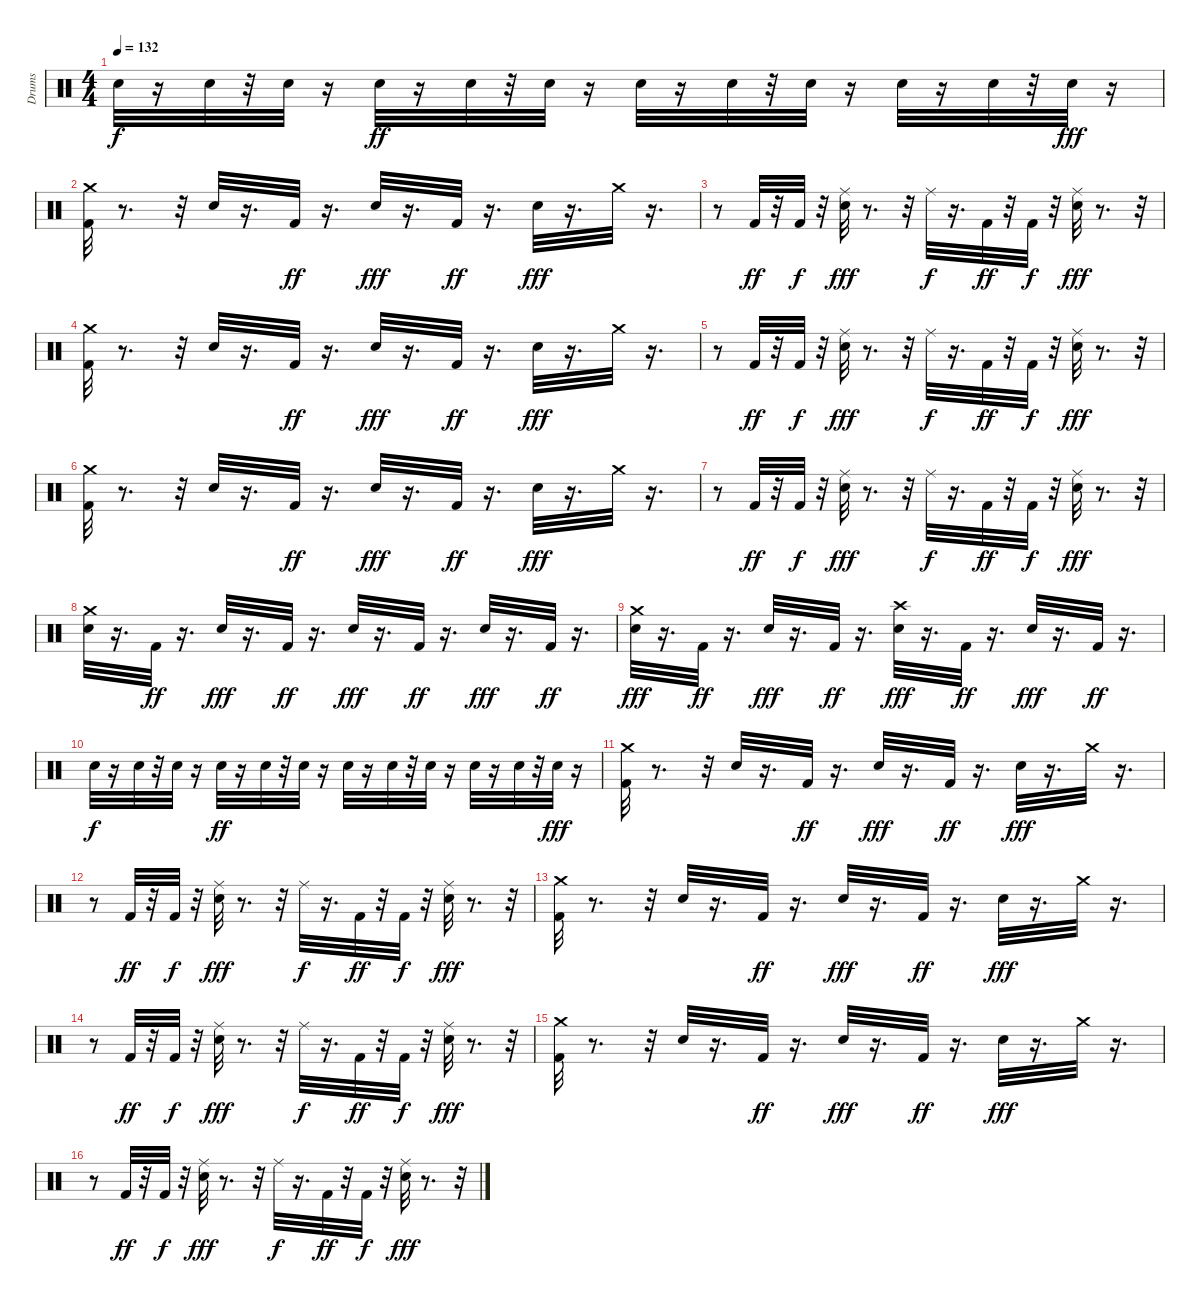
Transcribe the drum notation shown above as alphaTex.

\track ("Drums" "Drums") {instrument percussion}
\staff {score}
\articulation defaults
\ts (4 4)
\tempo 132
\clef neutral
\ks c "Snare (hit) 2".32{dy f}
r.16 "Snare (hit) 2".32 r.32 "Snare (hit) 2".32 r.16 "Snare (hit) 2".32{dy ff} r.16 "Snare (hit) 2".32 r.32 "Snare (hit) 2".32 r.16 "Snare (hit) 2".32 r.16 "Snare (hit) 2".32 r.32 "Snare (hit) 2".32 r.16 "Snare (hit) 2".32 r.16 "Snare (hit) 2".32 r.32 "Snare (hit) 2".32{dy fff} r.16 |
("Kick (hit) 2" "Crash medium (hit)").32 r.8{d} r.32 "Snare (hit) 2".32 r.16{d} "Kick (hit) 2".32{dy ff} r.16{d} "Snare (hit) 2".32{dy fff} r.16{d} "Kick (hit) 2".32{dy ff} r.16{d} "Snare (hit) 2".32{dy fff} r.16{d} "Crash medium (hit)".32 r.16{d} |
r.8 "Kick (hit) 2".32{dy ff} r.32 "Kick (hit) 2".32{dy f} r.32 ("Ride (middle)" "Snare (hit) 2").32{dy fff} r.8{d} r.32 "Ride (middle)".32{dy f} r.16{d} "Kick (hit) 2".32{dy ff} r.32 "Kick (hit) 2".32{dy f} r.32 ("Ride (middle)" "Snare (hit) 2").32{dy fff} r.8{d} r.32 |
("Kick (hit) 2" "Crash medium (hit)").32 r.8{d} r.32 "Snare (hit) 2".32 r.16{d} "Kick (hit) 2".32{dy ff} r.16{d} "Snare (hit) 2".32{dy fff} r.16{d} "Kick (hit) 2".32{dy ff} r.16{d} "Snare (hit) 2".32{dy fff} r.16{d} "Crash medium (hit)".32 r.16{d} |
r.8 "Kick (hit) 2".32{dy ff} r.32 "Kick (hit) 2".32{dy f} r.32 ("Ride (middle)" "Snare (hit) 2").32{dy fff} r.8{d} r.32 "Ride (middle)".32{dy f} r.16{d} "Kick (hit) 2".32{dy ff} r.32 "Kick (hit) 2".32{dy f} r.32 ("Ride (middle)" "Snare (hit) 2").32{dy fff} r.8{d} r.32 |
("Kick (hit) 2" "Crash medium (hit)").32 r.8{d} r.32 "Snare (hit) 2".32 r.16{d} "Kick (hit) 2".32{dy ff} r.16{d} "Snare (hit) 2".32{dy fff} r.16{d} "Kick (hit) 2".32{dy ff} r.16{d} "Snare (hit) 2".32{dy fff} r.16{d} "Crash medium (hit)".32 r.16{d} |
r.8 "Kick (hit) 2".32{dy ff} r.32 "Kick (hit) 2".32{dy f} r.32 ("Ride (middle)" "Snare (hit) 2").32{dy fff} r.8{d} r.32 "Ride (middle)".32{dy f} r.16{d} "Kick (hit) 2".32{dy ff} r.32 "Kick (hit) 2".32{dy f} r.32 ("Ride (middle)" "Snare (hit) 2").32{dy fff} r.8{d} r.32 |
("Crash medium (hit)" "Snare (hit) 2").32 r.16{d} "Kick (hit) 2".32{dy ff} r.16{d} "Snare (hit) 2".32{dy fff} r.16{d} "Kick (hit) 2".32{dy ff} r.16{d} "Snare (hit) 2".32{dy fff} r.16{d} "Kick (hit) 2".32{dy ff} r.16{d} "Snare (hit) 2".32{dy fff} r.16{d} "Kick (hit) 2".32{dy ff} r.16{d} |
("Snare (hit) 2" "Crash medium (hit)").32{dy fff} r.16{d} "Kick (hit) 2".32{dy ff} r.16{d} "Snare (hit) 2".32{dy fff} r.16{d} "Kick (hit) 2".32{dy ff} r.16{d} ("Crash high (hit)" "Snare (hit) 2").32{dy fff} r.16{d} "Kick (hit) 2".32{dy ff} r.16{d} "Snare (hit) 2".32{dy fff} r.16{d} "Kick (hit) 2".32{dy ff} r.16{d} |
"Snare (hit) 2".32{dy f} r.16 "Snare (hit) 2".32 r.32 "Snare (hit) 2".32 r.16 "Snare (hit) 2".32{dy ff} r.16 "Snare (hit) 2".32 r.32 "Snare (hit) 2".32 r.16 "Snare (hit) 2".32 r.16 "Snare (hit) 2".32 r.32 "Snare (hit) 2".32 r.16 "Snare (hit) 2".32 r.16 "Snare (hit) 2".32 r.32 "Snare (hit) 2".32{dy fff} r.16 |
("Kick (hit) 2" "Crash medium (hit)").32 r.8{d} r.32 "Snare (hit) 2".32 r.16{d} "Kick (hit) 2".32{dy ff} r.16{d} "Snare (hit) 2".32{dy fff} r.16{d} "Kick (hit) 2".32{dy ff} r.16{d} "Snare (hit) 2".32{dy fff} r.16{d} "Crash medium (hit)".32 r.16{d} |
r.8 "Kick (hit) 2".32{dy ff} r.32 "Kick (hit) 2".32{dy f} r.32 ("Ride (middle)" "Snare (hit) 2").32{dy fff} r.8{d} r.32 "Ride (middle)".32{dy f} r.16{d} "Kick (hit) 2".32{dy ff} r.32 "Kick (hit) 2".32{dy f} r.32 ("Ride (middle)" "Snare (hit) 2").32{dy fff} r.8{d} r.32 |
("Kick (hit) 2" "Crash medium (hit)").32 r.8{d} r.32 "Snare (hit) 2".32 r.16{d} "Kick (hit) 2".32{dy ff} r.16{d} "Snare (hit) 2".32{dy fff} r.16{d} "Kick (hit) 2".32{dy ff} r.16{d} "Snare (hit) 2".32{dy fff} r.16{d} "Crash medium (hit)".32 r.16{d} |
r.8 "Kick (hit) 2".32{dy ff} r.32 "Kick (hit) 2".32{dy f} r.32 ("Ride (middle)" "Snare (hit) 2").32{dy fff} r.8{d} r.32 "Ride (middle)".32{dy f} r.16{d} "Kick (hit) 2".32{dy ff} r.32 "Kick (hit) 2".32{dy f} r.32 ("Ride (middle)" "Snare (hit) 2").32{dy fff} r.8{d} r.32 |
("Kick (hit) 2" "Crash medium (hit)").32 r.8{d} r.32 "Snare (hit) 2".32 r.16{d} "Kick (hit) 2".32{dy ff} r.16{d} "Snare (hit) 2".32{dy fff} r.16{d} "Kick (hit) 2".32{dy ff} r.16{d} "Snare (hit) 2".32{dy fff} r.16{d} "Crash medium (hit)".32 r.16{d} |
r.8 "Kick (hit) 2".32{dy ff} r.32 "Kick (hit) 2".32{dy f} r.32 ("Ride (middle)" "Snare (hit) 2").32{dy fff} r.8{d} r.32 "Ride (middle)".32{dy f} r.16{d} "Kick (hit) 2".32{dy ff} r.32 "Kick (hit) 2".32{dy f} r.32 ("Ride (middle)" "Snare (hit) 2").32{dy fff} r.8{d} r.32
